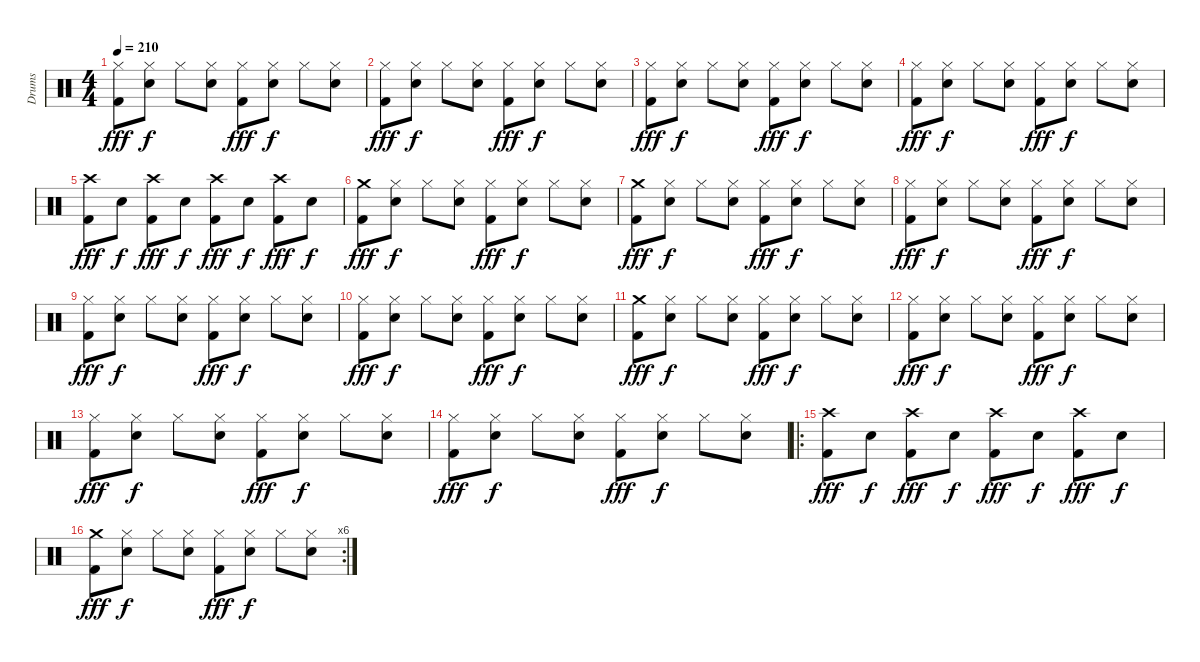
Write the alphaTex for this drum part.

\track ("Drums" "Drums") {instrument percussion}
\staff {score}
\articulation defaults
\ts (4 4)
\tempo 210
\clef neutral
\ks c
("Hi-Hat (closed)" "Kick (hit) 2").8{dy fff} ("Hi-Hat (closed)" "Snare (hit) 2").8{dy f} "Hi-Hat (closed)".8 ("Hi-Hat (closed)" "Snare (hit) 2").8 ("Hi-Hat (closed)" "Kick (hit) 2").8{dy fff} ("Hi-Hat (closed)" "Snare (hit) 2").8{dy f} "Hi-Hat (closed)".8 ("Hi-Hat (closed)" "Snare (hit) 2").8 |
("Hi-Hat (closed)" "Kick (hit) 2").8{dy fff} ("Hi-Hat (closed)" "Snare (hit) 2").8{dy f} "Hi-Hat (closed)".8 ("Hi-Hat (closed)" "Snare (hit) 2").8 ("Hi-Hat (closed)" "Kick (hit) 2").8{dy fff} ("Hi-Hat (closed)" "Snare (hit) 2").8{dy f} "Hi-Hat (closed)".8 ("Hi-Hat (closed)" "Snare (hit) 2").8 |
("Hi-Hat (closed)" "Kick (hit) 2").8{dy fff} ("Hi-Hat (closed)" "Snare (hit) 2").8{dy f} "Hi-Hat (closed)".8 ("Hi-Hat (closed)" "Snare (hit) 2").8 ("Hi-Hat (closed)" "Kick (hit) 2").8{dy fff} ("Hi-Hat (closed)" "Snare (hit) 2").8{dy f} "Hi-Hat (closed)".8 ("Hi-Hat (closed)" "Snare (hit) 2").8 |
("Hi-Hat (closed)" "Kick (hit) 2").8{dy fff} ("Hi-Hat (closed)" "Snare (hit) 2").8{dy f} "Hi-Hat (closed)".8 ("Hi-Hat (closed)" "Snare (hit) 2").8 ("Hi-Hat (closed)" "Kick (hit) 2").8{dy fff} ("Hi-Hat (closed)" "Snare (hit) 2").8{dy f} "Hi-Hat (closed)".8 ("Hi-Hat (closed)" "Snare (hit) 2").8 |
("Crash high (hit)" "Kick (hit) 2").8{dy fff} "Snare (hit) 2".8{dy f} ("Crash high (hit)" "Kick (hit) 2").8{dy fff} "Snare (hit) 2".8{dy f} ("Crash high (hit)" "Kick (hit) 2").8{dy fff} "Snare (hit) 2".8{dy f} ("Crash high (hit)" "Kick (hit) 2").8{dy fff} "Snare (hit) 2".8{dy f} |
("Crash medium (hit)" "Kick (hit) 2").8{dy fff} ("Hi-Hat (closed)" "Snare (hit) 2").8{dy f} "Hi-Hat (closed)".8 ("Hi-Hat (closed)" "Snare (hit) 2").8 ("Hi-Hat (closed)" "Kick (hit) 2").8{dy fff} ("Hi-Hat (closed)" "Snare (hit) 2").8{dy f} "Hi-Hat (closed)".8 ("Hi-Hat (closed)" "Snare (hit) 2").8 |
("Crash medium (hit)" "Kick (hit) 2").8{dy fff} ("Hi-Hat (closed)" "Snare (hit) 2").8{dy f} "Hi-Hat (closed)".8 ("Hi-Hat (closed)" "Snare (hit) 2").8 ("Hi-Hat (closed)" "Kick (hit) 2").8{dy fff} ("Hi-Hat (closed)" "Snare (hit) 2").8{dy f} "Hi-Hat (closed)".8 ("Hi-Hat (closed)" "Snare (hit) 2").8 |
("Hi-Hat (closed)" "Kick (hit) 2").8{dy fff} ("Hi-Hat (closed)" "Snare (hit) 2").8{dy f} "Hi-Hat (closed)".8 ("Hi-Hat (closed)" "Snare (hit) 2").8 ("Hi-Hat (closed)" "Kick (hit) 2").8{dy fff} ("Hi-Hat (closed)" "Snare (hit) 2").8{dy f} "Hi-Hat (closed)".8 ("Hi-Hat (closed)" "Snare (hit) 2").8 |
("Hi-Hat (closed)" "Kick (hit) 2").8{dy fff} ("Hi-Hat (closed)" "Snare (hit) 2").8{dy f} "Hi-Hat (closed)".8 ("Hi-Hat (closed)" "Snare (hit) 2").8 ("Hi-Hat (closed)" "Kick (hit) 2").8{dy fff} ("Hi-Hat (closed)" "Snare (hit) 2").8{dy f} "Hi-Hat (closed)".8 ("Hi-Hat (closed)" "Snare (hit) 2").8 |
("Hi-Hat (closed)" "Kick (hit) 2").8{dy fff} ("Hi-Hat (closed)" "Snare (hit) 2").8{dy f} "Hi-Hat (closed)".8 ("Hi-Hat (closed)" "Snare (hit) 2").8 ("Hi-Hat (closed)" "Kick (hit) 2").8{dy fff} ("Hi-Hat (closed)" "Snare (hit) 2").8{dy f} "Hi-Hat (closed)".8 ("Hi-Hat (closed)" "Snare (hit) 2").8 |
("Crash medium (hit)" "Kick (hit) 2").8{dy fff} ("Hi-Hat (closed)" "Snare (hit) 2").8{dy f} "Hi-Hat (closed)".8 ("Hi-Hat (closed)" "Snare (hit) 2").8 ("Hi-Hat (closed)" "Kick (hit) 2").8{dy fff} ("Hi-Hat (closed)" "Snare (hit) 2").8{dy f} "Hi-Hat (closed)".8 ("Hi-Hat (closed)" "Snare (hit) 2").8 |
("Hi-Hat (closed)" "Kick (hit) 2").8{dy fff} ("Hi-Hat (closed)" "Snare (hit) 2").8{dy f} "Hi-Hat (closed)".8 ("Hi-Hat (closed)" "Snare (hit) 2").8 ("Hi-Hat (closed)" "Kick (hit) 2").8{dy fff} ("Hi-Hat (closed)" "Snare (hit) 2").8{dy f} "Hi-Hat (closed)".8 ("Hi-Hat (closed)" "Snare (hit) 2").8 |
("Hi-Hat (closed)" "Kick (hit) 2").8{dy fff} ("Hi-Hat (closed)" "Snare (hit) 2").8{dy f} "Hi-Hat (closed)".8 ("Hi-Hat (closed)" "Snare (hit) 2").8 ("Hi-Hat (closed)" "Kick (hit) 2").8{dy fff} ("Hi-Hat (closed)" "Snare (hit) 2").8{dy f} "Hi-Hat (closed)".8 ("Hi-Hat (closed)" "Snare (hit) 2").8 |
("Hi-Hat (closed)" "Kick (hit) 2").8{dy fff} ("Hi-Hat (closed)" "Snare (hit) 2").8{dy f} "Hi-Hat (closed)".8 ("Hi-Hat (closed)" "Snare (hit) 2").8 ("Hi-Hat (closed)" "Kick (hit) 2").8{dy fff} ("Hi-Hat (closed)" "Snare (hit) 2").8{dy f} "Hi-Hat (closed)".8 ("Hi-Hat (closed)" "Snare (hit) 2").8 |
\ro
("Crash high (hit)" "Kick (hit) 2").8{dy fff} "Snare (hit) 2".8{dy f} ("Crash high (hit)" "Kick (hit) 2").8{dy fff} "Snare (hit) 2".8{dy f} ("Crash high (hit)" "Kick (hit) 2").8{dy fff} "Snare (hit) 2".8{dy f} ("Crash high (hit)" "Kick (hit) 2").8{dy fff} "Snare (hit) 2".8{dy f} |
\rc 6
("Crash medium (hit)" "Kick (hit) 2").8{dy fff} ("Hi-Hat (closed)" "Snare (hit) 2").8{dy f} "Hi-Hat (closed)".8 ("Hi-Hat (closed)" "Snare (hit) 2").8 ("Hi-Hat (closed)" "Kick (hit) 2").8{dy fff} ("Hi-Hat (closed)" "Snare (hit) 2").8{dy f} "Hi-Hat (closed)".8 ("Hi-Hat (closed)" "Snare (hit) 2").8
